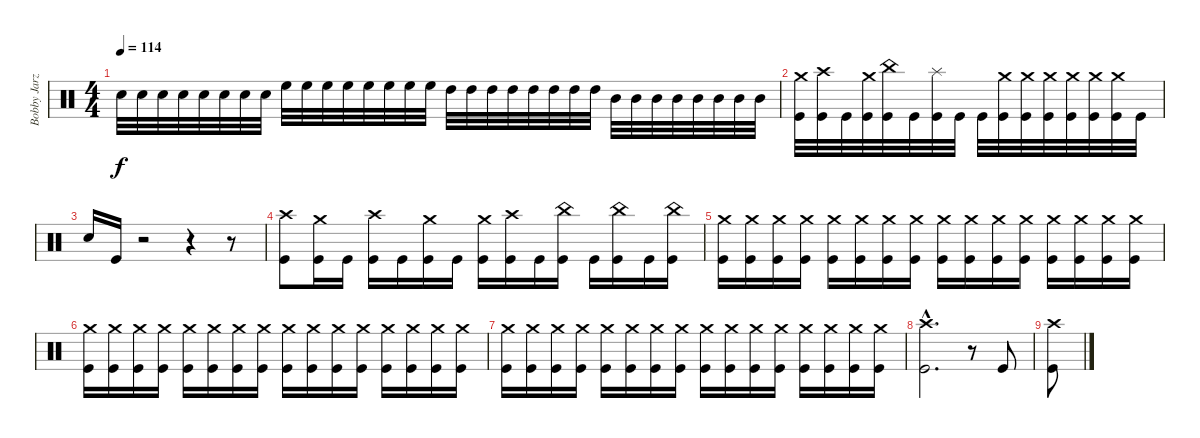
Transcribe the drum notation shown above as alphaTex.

\track ("Bobby Jarzombek" "Bobby Jarz") {instrument percussion}
\staff {score}
\articulation defaults
\ts (4 4)
\tempo 114
\clef neutral
\ks c "Electric Snare (hit)".32{dy f} "Electric Snare (hit)".32 "Electric Snare (hit)".32 "Electric Snare (hit)".32 "Electric Snare (hit)".32 "Electric Snare (hit)".32 "Electric Snare (hit)".32 "Electric Snare (hit)".32 "High Floor Tom (hit)".32 "High Floor Tom (hit)".32 "High Floor Tom (hit)".32 "High Floor Tom (hit)".32 "High Floor Tom (hit)".32 "High Floor Tom (hit)".32 "High Floor Tom (hit)".32 "High Floor Tom (hit)".32 "High Tom (hit)".32 "High Tom (hit)".32 "High Tom (hit)".32 "High Tom (hit)".32 "High Tom (hit)".32 "High Tom (hit)".32 "High Tom (hit)".32 "High Tom (hit)".32 "Mid Tom (hit)".32 "Mid Tom (hit)".32 "Mid Tom (hit)".32 "Mid Tom (hit)".32 "Mid Tom (hit)".32 "Mid Tom (hit)".32 "Mid Tom (hit)".32 "Mid Tom (hit)".32
|
("Crash medium (hit)" "Kick (hit)").32 ("Crash high (hit)" "Kick (hit)").32 "Kick (hit)".32 ("Crash medium (hit)" "Kick (hit)").32 ("China (hit)" "Kick (hit)").32 "Kick (hit)".32 ("Splash (hit)" "Kick (hit)").32 "Kick (hit)".32 "Kick (hit)".32 ("Crash medium (hit)" "Kick (hit)").32 ("Crash medium (hit)" "Kick (hit)").32 ("Crash medium (hit)" "Kick (hit)").32 ("Crash medium (hit)" "Kick (hit)").32 ("Crash medium (hit)" "Kick (hit)").32 ("Crash medium (hit)" "Kick (hit)").32 "Kick (hit)".32 |
"Electric Snare (hit)".16 "Kick (hit)".16 r.2 r.4 r.8 |
("Crash high (hit)" "Kick (hit)").8 ("Crash medium (hit)" "Kick (hit)").16 "Kick (hit)".16 ("Crash high (hit)" "Kick (hit)").16 "Kick (hit)".16 ("Crash medium (hit)" "Kick (hit)").16 "Kick (hit)".16 ("Crash medium (hit)" "Kick (hit)").16 ("Crash high (hit)" "Kick (hit)").16 "Kick (hit)".16 ("China (hit)" "Kick (hit)").16 "Kick (hit)".16 ("China (hit)" "Kick (hit)").16 "Kick (hit)".16 ("China (hit)" "Kick (hit)").16 |
("Crash medium (hit)" "Kick (hit)").16 ("Crash medium (hit)" "Kick (hit)").16 ("Crash medium (hit)" "Kick (hit)").16 ("Crash medium (hit)" "Kick (hit)").16 ("Crash medium (hit)" "Kick (hit)").16 ("Crash medium (hit)" "Kick (hit)").16 ("Crash medium (hit)" "Kick (hit)").16 ("Crash medium (hit)" "Kick (hit)").16 ("Crash medium (hit)" "Kick (hit)").16 ("Crash medium (hit)" "Kick (hit)").16 ("Crash medium (hit)" "Kick (hit)").16 ("Crash medium (hit)" "Kick (hit)").16 ("Crash medium (hit)" "Kick (hit)").16 ("Crash medium (hit)" "Kick (hit)").16 ("Crash medium (hit)" "Kick (hit)").16 ("Crash medium (hit)" "Kick (hit)").16 |
("Crash medium (hit)" "Kick (hit)").16 ("Crash medium (hit)" "Kick (hit)").16 ("Crash medium (hit)" "Kick (hit)").16 ("Crash medium (hit)" "Kick (hit)").16 ("Crash medium (hit)" "Kick (hit)").16 ("Crash medium (hit)" "Kick (hit)").16 ("Crash medium (hit)" "Kick (hit)").16 ("Crash medium (hit)" "Kick (hit)").16 ("Crash medium (hit)" "Kick (hit)").16 ("Crash medium (hit)" "Kick (hit)").16 ("Crash medium (hit)" "Kick (hit)").16 ("Crash medium (hit)" "Kick (hit)").16 ("Crash medium (hit)" "Kick (hit)").16 ("Crash medium (hit)" "Kick (hit)").16 ("Crash medium (hit)" "Kick (hit)").16 ("Crash medium (hit)" "Kick (hit)").16 |
("Crash medium (hit)" "Kick (hit)").16 ("Crash medium (hit)" "Kick (hit)").16 ("Crash medium (hit)" "Kick (hit)").16 ("Crash medium (hit)" "Kick (hit)").16 ("Crash medium (hit)" "Kick (hit)").16 ("Crash medium (hit)" "Kick (hit)").16 ("Crash medium (hit)" "Kick (hit)").16 ("Crash medium (hit)" "Kick (hit)").16 ("Crash medium (hit)" "Kick (hit)").16 ("Crash medium (hit)" "Kick (hit)").16 ("Crash medium (hit)" "Kick (hit)").16 ("Crash medium (hit)" "Kick (hit)").16 ("Crash medium (hit)" "Kick (hit)").16 ("Crash medium (hit)" "Kick (hit)").16 ("Crash medium (hit)" "Kick (hit)").16 ("Crash medium (hit)" "Kick (hit)").16 |
("Crash high (hit)"{hac} "Kick (hit)"{hac}).2{d} r.8 "Kick (hit)".8 |
("Crash high (hit)" "Kick (hit)").8
